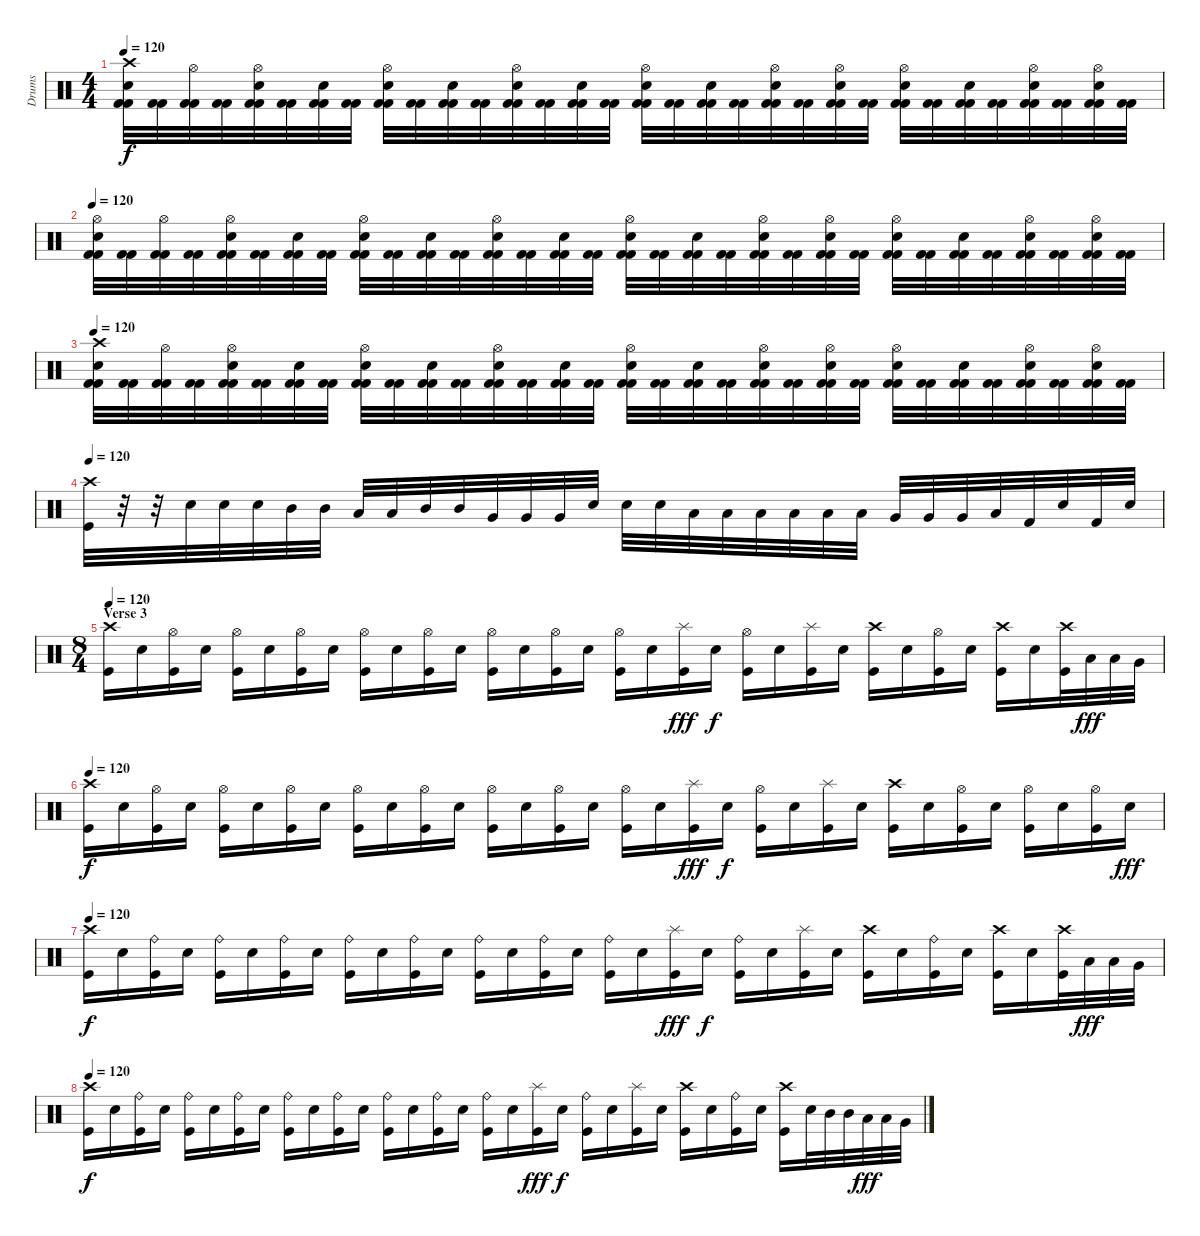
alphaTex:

\track ("Drums" "Drums") {instrument percussion}
\staff {score}
\articulation defaults
\ts (4 4)
\tempo 120
\clef neutral
\ks c
("Crash high (hit)" "Electric Snare (hit)" "Kick (hit) 2" "Kick (hit) 2").32{dy f} ("Kick (hit) 2" "Kick (hit) 2").32 ("Hi-Hat (open)" "Kick (hit) 2" "Kick (hit) 2").32 ("Kick (hit) 2" "Kick (hit) 2").32 ("Hi-Hat (open)" "Electric Snare (hit)" "Kick (hit) 2" "Kick (hit) 2").32 ("Kick (hit) 2" "Kick (hit) 2").32 ("Electric Snare (hit)" "Kick (hit) 2" "Kick (hit) 2").32 ("Kick (hit) 2" "Kick (hit) 2").32 ("Hi-Hat (open)" "Electric Snare (hit)" "Kick (hit) 2" "Kick (hit) 2").32 ("Kick (hit) 2" "Kick (hit) 2").32 ("Electric Snare (hit)" "Kick (hit) 2" "Kick (hit) 2").32 ("Kick (hit) 2" "Kick (hit) 2").32 ("Hi-Hat (open)" "Electric Snare (hit)" "Kick (hit) 2" "Kick (hit) 2").32 ("Kick (hit) 2" "Kick (hit) 2").32 ("Electric Snare (hit)" "Kick (hit) 2" "Kick (hit) 2").32 ("Kick (hit) 2" "Kick (hit) 2").32 ("Hi-Hat (open)" "Electric Snare (hit)" "Kick (hit) 2" "Kick (hit) 2").32 ("Kick (hit) 2" "Kick (hit) 2").32 ("Electric Snare (hit)" "Kick (hit) 2" "Kick (hit) 2").32 ("Kick (hit) 2" "Kick (hit) 2").32 ("Hi-Hat (open)" "Electric Snare (hit)" "Kick (hit) 2" "Kick (hit) 2").32 ("Kick (hit) 2" "Kick (hit) 2").32 ("Hi-Hat (open)" "Electric Snare (hit)" "Kick (hit) 2" "Kick (hit) 2").32 ("Kick (hit) 2" "Kick (hit) 2").32 ("Hi-Hat (open)" "Electric Snare (hit)" "Kick (hit) 2" "Kick (hit) 2").32 ("Kick (hit) 2" "Kick (hit) 2").32 ("Electric Snare (hit)" "Kick (hit) 2" "Kick (hit) 2").32 ("Kick (hit) 2" "Kick (hit) 2").32 ("Hi-Hat (open)" "Electric Snare (hit)" "Kick (hit) 2" "Kick (hit) 2").32 ("Kick (hit) 2" "Kick (hit) 2").32 ("Hi-Hat (open)" "Electric Snare (hit)" "Kick (hit) 2" "Kick (hit) 2").32 ("Kick (hit) 2" "Kick (hit) 2").32 |
\tempo 120
("Hi-Hat (open)" "Electric Snare (hit)" "Kick (hit) 2" "Kick (hit) 2").32 ("Kick (hit) 2" "Kick (hit) 2").32 ("Hi-Hat (open)" "Kick (hit) 2" "Kick (hit) 2").32 ("Kick (hit) 2" "Kick (hit) 2").32 ("Hi-Hat (open)" "Electric Snare (hit)" "Kick (hit) 2" "Kick (hit) 2").32 ("Kick (hit) 2" "Kick (hit) 2").32 ("Electric Snare (hit)" "Kick (hit) 2" "Kick (hit) 2").32 ("Kick (hit) 2" "Kick (hit) 2").32 ("Hi-Hat (open)" "Electric Snare (hit)" "Kick (hit) 2" "Kick (hit) 2").32 ("Kick (hit) 2" "Kick (hit) 2").32 ("Electric Snare (hit)" "Kick (hit) 2" "Kick (hit) 2").32 ("Kick (hit) 2" "Kick (hit) 2").32 ("Hi-Hat (open)" "Electric Snare (hit)" "Kick (hit) 2" "Kick (hit) 2").32 ("Kick (hit) 2" "Kick (hit) 2").32 ("Electric Snare (hit)" "Kick (hit) 2" "Kick (hit) 2").32 ("Kick (hit) 2" "Kick (hit) 2").32 ("Hi-Hat (open)" "Electric Snare (hit)" "Kick (hit) 2" "Kick (hit) 2").32 ("Kick (hit) 2" "Kick (hit) 2").32 ("Electric Snare (hit)" "Kick (hit) 2" "Kick (hit) 2").32 ("Kick (hit) 2" "Kick (hit) 2").32 ("Hi-Hat (open)" "Electric Snare (hit)" "Kick (hit) 2" "Kick (hit) 2").32 ("Kick (hit) 2" "Kick (hit) 2").32 ("Hi-Hat (open)" "Electric Snare (hit)" "Kick (hit) 2" "Kick (hit) 2").32 ("Kick (hit) 2" "Kick (hit) 2").32 ("Hi-Hat (open)" "Electric Snare (hit)" "Kick (hit) 2" "Kick (hit) 2").32 ("Kick (hit) 2" "Kick (hit) 2").32 ("Electric Snare (hit)" "Kick (hit) 2" "Kick (hit) 2").32 ("Kick (hit) 2" "Kick (hit) 2").32 ("Hi-Hat (open)" "Electric Snare (hit)" "Kick (hit) 2" "Kick (hit) 2").32 ("Kick (hit) 2" "Kick (hit) 2").32 ("Hi-Hat (open)" "Electric Snare (hit)" "Kick (hit) 2" "Kick (hit) 2").32 ("Kick (hit) 2" "Kick (hit) 2").32 |
\tempo 120
("Crash high (hit)" "Electric Snare (hit)" "Kick (hit) 2" "Kick (hit) 2").32 ("Kick (hit) 2" "Kick (hit) 2").32 ("Hi-Hat (open)" "Kick (hit) 2" "Kick (hit) 2").32 ("Kick (hit) 2" "Kick (hit) 2").32 ("Hi-Hat (open)" "Electric Snare (hit)" "Kick (hit) 2" "Kick (hit) 2").32 ("Kick (hit) 2" "Kick (hit) 2").32 ("Electric Snare (hit)" "Kick (hit) 2" "Kick (hit) 2").32 ("Kick (hit) 2" "Kick (hit) 2").32 ("Hi-Hat (open)" "Electric Snare (hit)" "Kick (hit) 2" "Kick (hit) 2").32 ("Kick (hit) 2" "Kick (hit) 2").32 ("Electric Snare (hit)" "Kick (hit) 2" "Kick (hit) 2").32 ("Kick (hit) 2" "Kick (hit) 2").32 ("Hi-Hat (open)" "Electric Snare (hit)" "Kick (hit) 2" "Kick (hit) 2").32 ("Kick (hit) 2" "Kick (hit) 2").32 ("Electric Snare (hit)" "Kick (hit) 2" "Kick (hit) 2").32 ("Kick (hit) 2" "Kick (hit) 2").32 ("Hi-Hat (open)" "Electric Snare (hit)" "Kick (hit) 2" "Kick (hit) 2").32 ("Kick (hit) 2" "Kick (hit) 2").32 ("Electric Snare (hit)" "Kick (hit) 2" "Kick (hit) 2").32 ("Kick (hit) 2" "Kick (hit) 2").32 ("Hi-Hat (open)" "Electric Snare (hit)" "Kick (hit) 2" "Kick (hit) 2").32 ("Kick (hit) 2" "Kick (hit) 2").32 ("Hi-Hat (open)" "Electric Snare (hit)" "Kick (hit) 2" "Kick (hit) 2").32 ("Kick (hit) 2" "Kick (hit) 2").32 ("Hi-Hat (open)" "Electric Snare (hit)" "Kick (hit) 2" "Kick (hit) 2").32 ("Kick (hit) 2" "Kick (hit) 2").32 ("Electric Snare (hit)" "Kick (hit) 2" "Kick (hit) 2").32 ("Kick (hit) 2" "Kick (hit) 2").32 ("Hi-Hat (open)" "Electric Snare (hit)" "Kick (hit) 2" "Kick (hit) 2").32 ("Kick (hit) 2" "Kick (hit) 2").32 ("Hi-Hat (open)" "Electric Snare (hit)" "Kick (hit) 2" "Kick (hit) 2").32 ("Kick (hit) 2" "Kick (hit) 2").32 |
\tempo 120
("Crash high (hit)" "Kick (hit)").32 r.32 r.32 "Electric Snare (hit)".32 "Electric Snare (hit)".32 "Electric Snare (hit)".32 "Mid Tom (hit)".32 "Mid Tom (hit)".32 "Low Tom (hit)".32 "Low Tom (hit)".32 "Mid Tom (hit)".32 "Mid Tom (hit)".32 "Very Low Tom (hit)".32 "Very Low Tom (hit)".32 "Very Low Tom (hit)".32 "Electric Snare (hit)".32 "Electric Snare (hit)".32 "Electric Snare (hit)".32 "Low Tom (hit)".32 "Low Tom (hit)".32 "Low Tom (hit)".32 "Low Floor Tom (hit)".32 "Low Floor Tom (hit)".32 "Low Floor Tom (hit)".32 "Very Low Tom (hit)".32 "Very Low Tom (hit)".32 "Very Low Tom (hit)".32 "Low Floor Tom (hit)".32 "Kick (hit) 2".32 "Electric Snare (hit)".32 "Kick (hit) 2".32 "Electric Snare (hit)".32 |
\ts (8 4)
\section ("" "Verse 3")
\tempo 120
("Crash high (hit)" "Kick (hit)").16 "Electric Snare (hit)".16 ("Hi-Hat (open)" "Kick (hit)").16 "Electric Snare (hit)".16 ("Hi-Hat (open)" "Kick (hit)").16 "Electric Snare (hit)".16 ("Hi-Hat (open)" "Kick (hit)").16 "Electric Snare (hit)".16 ("Hi-Hat (open)" "Kick (hit)").16 "Electric Snare (hit)".16 ("Hi-Hat (open)" "Kick (hit)").16 "Electric Snare (hit)".16 ("Hi-Hat (open)" "Kick (hit)").16 "Electric Snare (hit)".16 ("Hi-Hat (open)" "Kick (hit)").16 "Electric Snare (hit)".16 ("Hi-Hat (open)" "Kick (hit)").16 "Electric Snare (hit)".16 ("Splash (hit)" "Kick (hit)").16{dy fff} "Electric Snare (hit)".16{dy f} ("Hi-Hat (open)" "Kick (hit)").16 "Electric Snare (hit)".16 ("Splash (hit)" "Kick (hit)").16 "Electric Snare (hit)".16 ("Crash high (hit)" "Kick (hit)").16 "Electric Snare (hit)".16 ("Hi-Hat (open)" "Kick (hit)").16 "Electric Snare (hit)".16 ("Crash high (hit)" "Kick (hit)").16 "Electric Snare (hit)".16 ("Crash high (hit)" "Kick (hit)").32 "Low Tom (hit)".32{dy fff} "Low Tom (hit)".32 "Very Low Tom (hit)".32 |
\tempo 120
("Crash high (hit)" "Kick (hit)").16{dy f} "Electric Snare (hit)".16 ("Hi-Hat (open)" "Kick (hit)").16 "Electric Snare (hit)".16 ("Hi-Hat (open)" "Kick (hit)").16 "Electric Snare (hit)".16 ("Hi-Hat (open)" "Kick (hit)").16 "Electric Snare (hit)".16 ("Hi-Hat (open)" "Kick (hit)").16 "Electric Snare (hit)".16 ("Hi-Hat (open)" "Kick (hit)").16 "Electric Snare (hit)".16 ("Hi-Hat (open)" "Kick (hit)").16 "Electric Snare (hit)".16 ("Hi-Hat (open)" "Kick (hit)").16 "Electric Snare (hit)".16 ("Hi-Hat (open)" "Kick (hit)").16 "Electric Snare (hit)".16 ("Splash (hit)" "Kick (hit)").16{dy fff} "Electric Snare (hit)".16{dy f} ("Hi-Hat (open)" "Kick (hit)").16 "Electric Snare (hit)".16 ("Splash (hit)" "Kick (hit)").16 "Electric Snare (hit)".16 ("Crash high (hit)" "Kick (hit)").16 "Electric Snare (hit)".16 ("Hi-Hat (open)" "Kick (hit)").16 "Electric Snare (hit)".16 ("Hi-Hat (open)" "Kick (hit)").16 "Electric Snare (hit)".16 ("Hi-Hat (open)" "Kick (hit)").16 "Electric Snare (hit)".16{dy fff} |
\tempo 120
("Crash high (hit)" "Kick (hit)").16{dy f} "Electric Snare (hit)".16 ("Ride (bell)" "Kick (hit)").16 "Electric Snare (hit)".16 ("Ride (bell)" "Kick (hit)").16 "Electric Snare (hit)".16 ("Ride (bell)" "Kick (hit)").16 "Electric Snare (hit)".16 ("Ride (bell)" "Kick (hit)").16 "Electric Snare (hit)".16 ("Ride (bell)" "Kick (hit)").16 "Electric Snare (hit)".16 ("Ride (bell)" "Kick (hit)").16 "Electric Snare (hit)".16 ("Ride (bell)" "Kick (hit)").16 "Electric Snare (hit)".16 ("Ride (bell)" "Kick (hit)").16 "Electric Snare (hit)".16 ("Splash (hit)" "Kick (hit)").16{dy fff} "Electric Snare (hit)".16{dy f} ("Ride (bell)" "Kick (hit)").16 "Electric Snare (hit)".16 ("Splash (hit)" "Kick (hit)").16 "Electric Snare (hit)".16 ("Crash high (hit)" "Kick (hit)").16 "Electric Snare (hit)".16 ("Ride (bell)" "Kick (hit)").16 "Electric Snare (hit)".16 ("Crash high (hit)" "Kick (hit)").16 "Electric Snare (hit)".16 ("Crash high (hit)" "Kick (hit)").32 "Low Tom (hit)".32{dy fff} "Low Tom (hit)".32 "Very Low Tom (hit)".32 |
\tempo 120
("Crash high (hit)" "Kick (hit)").16{dy f} "Electric Snare (hit)".16 ("Ride (bell)" "Kick (hit)").16 "Electric Snare (hit)".16 ("Ride (bell)" "Kick (hit)").16 "Electric Snare (hit)".16 ("Ride (bell)" "Kick (hit)").16 "Electric Snare (hit)".16 ("Ride (bell)" "Kick (hit)").16 "Electric Snare (hit)".16 ("Ride (bell)" "Kick (hit)").16 "Electric Snare (hit)".16 ("Ride (bell)" "Kick (hit)").16 "Electric Snare (hit)".16 ("Ride (bell)" "Kick (hit)").16 "Electric Snare (hit)".16 ("Ride (bell)" "Kick (hit)").16 "Electric Snare (hit)".16 ("Splash (hit)" "Kick (hit)").16{dy fff} "Electric Snare (hit)".16{dy f} ("Ride (bell)" "Kick (hit)").16 "Electric Snare (hit)".16 ("Splash (hit)" "Kick (hit)").16 "Electric Snare (hit)".16 ("Crash high (hit)" "Kick (hit)").16 "Electric Snare (hit)".16 ("Ride (bell)" "Kick (hit)").16 "Electric Snare (hit)".16 ("Crash high (hit)" "Kick (hit)").16 "Electric Snare (hit)".32 "Mid Tom (hit)".32 "Mid Tom (hit)".32 "Low Tom (hit)".32{dy fff} "Low Tom (hit)".32 "Very Low Tom (hit)".32
